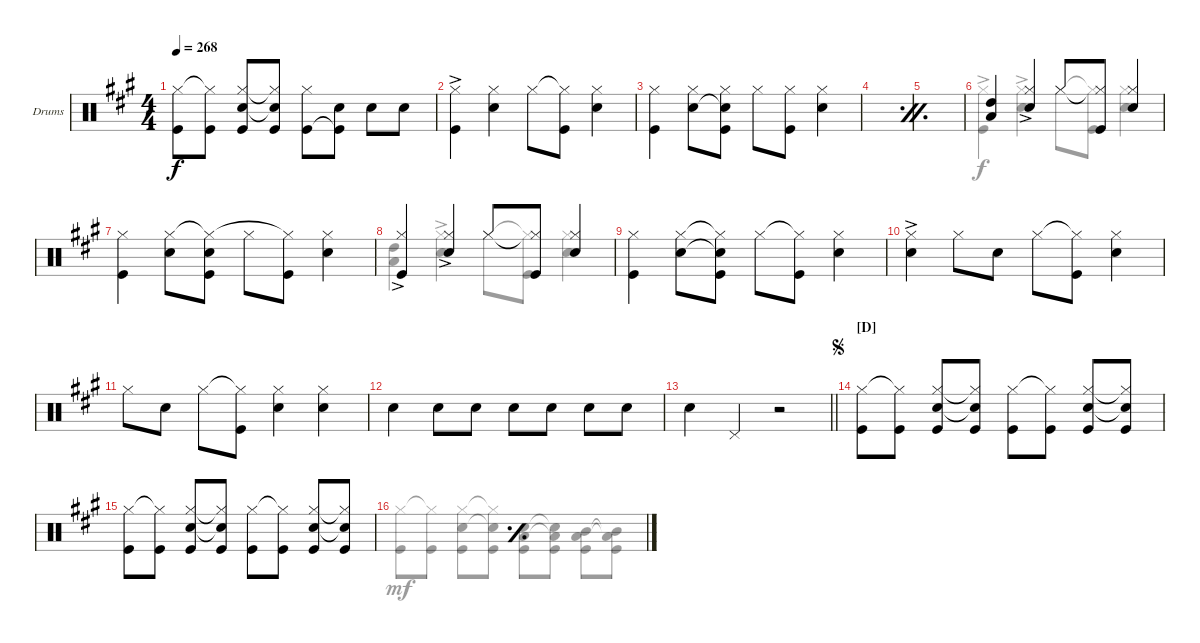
\defaultSystemsLayout 4
\bracketExtendMode groupsimilarinstruments
\firstSystemTrackNameOrientation horizontal
\otherSystemsTrackNameOrientation horizontal
\track ("Stefan Kaufmann" "Drums") {instrument percussion}
\staff {score}
\articulation defaults
\voice
\ts (4 4)
\tempo 268
\clef neutral
\ks a
("Kick (hit)" "Hi-Hat (closed)").8{dy f} ("Kick (hit)" "Hi-Hat (closed)"{t}).8 ("Kick (hit)" "Hi-Hat (closed)" "Snare (hit) 2").8 ("Kick (hit)" "Hi-Hat (closed)"{t} "Snare (hit) 2"{t}).8 ("Hi-Hat (closed)" "Kick (hit)").8 ("Snare (hit) 2" "Kick (hit)"{t}).8 "Snare (hit) 2".8 "Snare (hit) 2".8 |
("Kick (hit)" "Hi-Hat (closed)"{ac}).4 ("Hi-Hat (closed)" "Snare (hit) 2").4 "Hi-Hat (closed)".8 ("Hi-Hat (closed)"{t} "Kick (hit)").8 ("Hi-Hat (closed)" "Snare (hit) 2").4 |
("Hi-Hat (closed)" "Kick (hit)").4 ("Hi-Hat (closed)" "Snare (hit) 2").8 ("Hi-Hat (closed)" "Snare (hit) 2"{t} "Kick (hit)").8 "Hi-Hat (closed)".8 ("Hi-Hat (closed)" "Kick (hit)").8 ("Hi-Hat (closed)" "Snare (hit) 2").4 |
\simile firstofdouble
|
\simile secondofdouble
|
\simile none
("Low Tom (hit)" "High Tom (hit)").4 ("Hi-Hat (closed)"{ac} "Snare (hit) 2").4 "Hi-Hat (closed)".8 ("Hi-Hat (closed)"{t} "Kick (hit)").8 ("Snare (hit) 2" "Hi-Hat (closed)").4 |
("Hi-Hat (closed)" "Kick (hit)").4 ("Snare (hit) 2" "Hi-Hat (closed)").8 ("Kick (hit)" "Hi-Hat (closed)"{t} "Snare (hit) 2").8 "Hi-Hat (closed)".8 ("Kick (hit)" "Hi-Hat (closed)"{t}).8 ("Snare (hit) 2" "Hi-Hat (closed)").4 |
("Hi-Hat (closed)"{ac} "Kick (hit)").4 ("Hi-Hat (closed)" "Snare (hit) 2"{ac}).4 "Hi-Hat (closed)".8 ("Hi-Hat (closed)"{t} "Kick (hit)").8 ("Hi-Hat (closed)" "Snare (hit) 2").4 |
("Hi-Hat (closed)" "Kick (hit)").4 ("Hi-Hat (closed)" "Snare (hit) 2").8 ("Hi-Hat (closed)"{t} "Snare (hit) 2"{t} "Kick (hit)").8 "Hi-Hat (closed)".8 ("Hi-Hat (closed)"{t} "Kick (hit)").8 ("Hi-Hat (closed)" "Snare (hit) 2").4 |
("Snare (hit) 2" "Hi-Hat (closed)"{ac}).4 "Hi-Hat (closed)".8 "Snare (hit) 2".8 "Hi-Hat (closed)".8 ("Hi-Hat (closed)"{t} "Kick (hit)").8 ("Hi-Hat (closed)" "Snare (hit) 2").4 |
"Hi-Hat (closed)".8 "Snare (hit) 2".8 "Hi-Hat (closed)".8 ("Hi-Hat (closed)"{t} "Kick (hit)").8 ("Snare (hit) 2" "Hi-Hat (closed)").4 ("Hi-Hat (closed)" "Snare (hit) 2").4 |
"Snare (hit) 2".4 "Snare (hit) 2".8 "Snare (hit) 2".8 "Snare (hit) 2".8 "Snare (hit) 2".8 "Snare (hit) 2".8 "Snare (hit) 2".8 |
\barLineRight lightlight "Snare (hit) 2".4 "Pedal Hi-Hat (hit)".4
r.2 |
\section ("D" "")
\jump segno
("Kick (hit)" "Hi-Hat (closed)").8 ("Kick (hit)" "Hi-Hat (closed)"{t}).8 ("Kick (hit)" "Hi-Hat (closed)" "Snare (hit) 2").8 ("Kick (hit)" "Hi-Hat (closed)"{t} "Snare (hit) 2"{t}).8 ("Kick (hit)" "Hi-Hat (closed)").8 ("Kick (hit)" "Hi-Hat (closed)"{t}).8 ("Kick (hit)" "Hi-Hat (closed)" "Snare (hit) 2").8 ("Kick (hit)" "Hi-Hat (closed)"{t} "Snare (hit) 2"{t}).8 |
("Kick (hit)" "Hi-Hat (closed)").8 ("Kick (hit)" "Hi-Hat (closed)"{t}).8 ("Kick (hit)" "Snare (hit) 2" "Hi-Hat (closed)").8 ("Kick (hit)" "Snare (hit) 2"{t} "Hi-Hat (closed)"{t}).8 ("Kick (hit)" "Hi-Hat (closed)").8 ("Kick (hit)" "Hi-Hat (closed)"{t}).8 ("Kick (hit)" "Snare (hit) 2" "Hi-Hat (closed)").8 ("Kick (hit)" "Snare (hit) 2"{t} "Hi-Hat (closed)"{t}).8 |
\simile simple
\voice
\clef neutral
\ottava regular
\simile none
\ks a
("Kick (hit)" "Hi-Hat (closed)").8{dy mf} ("Kick (hit)" "Hi-Hat (closed)"{t}).8 ("Kick (hit)" "Hi-Hat (closed)" "Snare (hit) 2").8 ("Kick (hit)" "Hi-Hat (closed)"{t} "Snare (hit) 2"{t}).8 ("Kick (hit)" "Snare (hit) 2" "Low Tom (hit)").8 ("Kick (hit)" "Snare (hit) 2"{t} "Low Tom (hit)"{t}).8 ("Kick (hit)" "Low Tom (hit)" "Mid Tom (hit)").8 ("Kick (hit)" "Low Tom (hit)"{t} "Mid Tom (hit)"{t}).8 |
|
|
\simile firstofdouble
|
\simile secondofdouble
|
\simile none
("Hi-Hat (closed)"{ac} "Kick (hit)").4{dy f} ("Hi-Hat (closed)"{ac} "Snare (hit) 2").4 "Hi-Hat (closed)".8 ("Hi-Hat (closed)"{t} "Kick (hit)").8 ("Snare (hit) 2" "Hi-Hat (closed)").4 |
|
("Low Tom (hit)" "High Tom (hit)").4 ("Hi-Hat (closed)" "Snare (hit) 2"{ac}).4 "Hi-Hat (closed)".8 ("Hi-Hat (closed)"{t} "Kick (hit)").8 ("Snare (hit) 2" "Hi-Hat (closed)").4 |
|
|
|
|
\barLineRight lightlight
|
|
|
\simile simple
